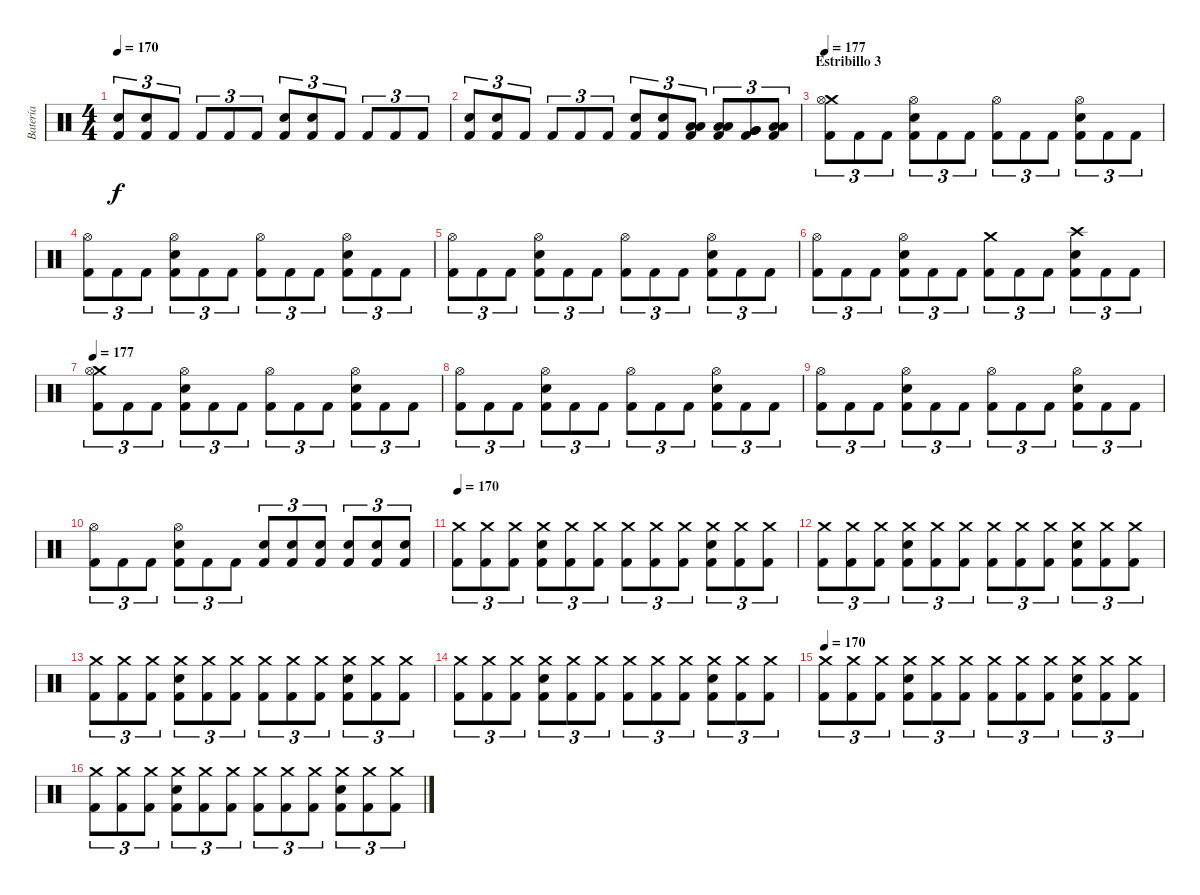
\track ("Batería" "Batería") {instrument percussion}
\staff {score}
\articulation defaults
\ts (4 4)
\tempo 170
\clef neutral
\ks c
("Snare (hit) 2" "Kick (hit) 2").8{tu (3 2) dy f} ("Snare (hit) 2" "Kick (hit) 2").8{tu (3 2)} "Kick (hit) 2".8{tu (3 2)} "Kick (hit) 2".8{tu (3 2)} "Kick (hit) 2".8{tu (3 2)} "Kick (hit) 2".8{tu (3 2)} ("Snare (hit) 2" "Kick (hit) 2").8{tu (3 2)} ("Snare (hit) 2" "Kick (hit) 2").8{tu (3 2)} "Kick (hit) 2".8{tu (3 2)} "Kick (hit) 2".8{tu (3 2)} "Kick (hit) 2".8{tu (3 2)} "Kick (hit) 2".8{tu (3 2)} |
("Snare (hit) 2" "Kick (hit) 2").8{tu (3 2)} ("Snare (hit) 2" "Kick (hit) 2").8{tu (3 2)} "Kick (hit) 2".8{tu (3 2)} "Kick (hit) 2".8{tu (3 2)} "Kick (hit) 2".8{tu (3 2)} "Kick (hit) 2".8{tu (3 2)} ("Snare (hit) 2" "Kick (hit) 2").8{tu (3 2)} ("Snare (hit) 2" "Kick (hit) 2").8{tu (3 2)} ("Low Tom (hit)" "Low Tom (hit)" "Kick (hit) 2").8{tu (3 2)} ("Low Tom (hit)" "Low Tom (hit)" "Kick (hit) 2").8{tu (3 2)} ("Very Low Tom (hit)" "Very Low Tom (hit)" "Kick (hit) 2").8{tu (3 2)} ("Low Floor Tom (hit)" "Low Floor Tom (hit)" "Kick (hit) 2").8{tu (3 2)} |
\section ("" "Estribillo 3")
\tempo 177
("Crash medium (hit)" "Hi-Hat (open)" "Kick (hit) 2").8{tu (3 2)} "Kick (hit) 2".8{tu (3 2)} "Kick (hit) 2".8{tu (3 2)} ("Hi-Hat (open)" "Snare (hit) 2" "Kick (hit) 2").8{tu (3 2)} "Kick (hit) 2".8{tu (3 2)} "Kick (hit) 2".8{tu (3 2)} ("Hi-Hat (open)" "Kick (hit) 2").8{tu (3 2)} "Kick (hit) 2".8{tu (3 2)} "Kick (hit) 2".8{tu (3 2)} ("Hi-Hat (open)" "Snare (hit) 2" "Kick (hit) 2").8{tu (3 2)} "Kick (hit) 2".8{tu (3 2)} "Kick (hit) 2".8{tu (3 2)} |
("Hi-Hat (open)" "Kick (hit) 2").8{tu (3 2)} "Kick (hit) 2".8{tu (3 2)} "Kick (hit) 2".8{tu (3 2)} ("Hi-Hat (open)" "Snare (hit) 2" "Kick (hit) 2").8{tu (3 2)} "Kick (hit) 2".8{tu (3 2)} "Kick (hit) 2".8{tu (3 2)} ("Hi-Hat (open)" "Kick (hit) 2").8{tu (3 2)} "Kick (hit) 2".8{tu (3 2)} "Kick (hit) 2".8{tu (3 2)} ("Hi-Hat (open)" "Snare (hit) 2" "Kick (hit) 2").8{tu (3 2)} "Kick (hit) 2".8{tu (3 2)} "Kick (hit) 2".8{tu (3 2)} |
("Hi-Hat (open)" "Kick (hit) 2").8{tu (3 2)} "Kick (hit) 2".8{tu (3 2)} "Kick (hit) 2".8{tu (3 2)} ("Hi-Hat (open)" "Snare (hit) 2" "Kick (hit) 2").8{tu (3 2)} "Kick (hit) 2".8{tu (3 2)} "Kick (hit) 2".8{tu (3 2)} ("Hi-Hat (open)" "Kick (hit) 2").8{tu (3 2)} "Kick (hit) 2".8{tu (3 2)} "Kick (hit) 2".8{tu (3 2)} ("Hi-Hat (open)" "Snare (hit) 2" "Kick (hit) 2").8{tu (3 2)} "Kick (hit) 2".8{tu (3 2)} "Kick (hit) 2".8{tu (3 2)} |
("Hi-Hat (open)" "Kick (hit) 2").8{tu (3 2)} "Kick (hit) 2".8{tu (3 2)} "Kick (hit) 2".8{tu (3 2)} ("Hi-Hat (open)" "Snare (hit) 2" "Kick (hit) 2").8{tu (3 2)} "Kick (hit) 2".8{tu (3 2)} "Kick (hit) 2".8{tu (3 2)} ("Crash medium (hit)" "Kick (hit) 2").8{tu (3 2)} "Kick (hit) 2".8{tu (3 2)} "Kick (hit) 2".8{tu (3 2)} ("Crash high (hit)" "Snare (hit) 2" "Kick (hit) 2").8{tu (3 2)} "Kick (hit) 2".8{tu (3 2)} "Kick (hit) 2".8{tu (3 2)} |
\tempo 177
("Crash medium (hit)" "Hi-Hat (open)" "Kick (hit) 2").8{tu (3 2)} "Kick (hit) 2".8{tu (3 2)} "Kick (hit) 2".8{tu (3 2)} ("Hi-Hat (open)" "Snare (hit) 2" "Kick (hit) 2").8{tu (3 2)} "Kick (hit) 2".8{tu (3 2)} "Kick (hit) 2".8{tu (3 2)} ("Hi-Hat (open)" "Kick (hit) 2").8{tu (3 2)} "Kick (hit) 2".8{tu (3 2)} "Kick (hit) 2".8{tu (3 2)} ("Hi-Hat (open)" "Snare (hit) 2" "Kick (hit) 2").8{tu (3 2)} "Kick (hit) 2".8{tu (3 2)} "Kick (hit) 2".8{tu (3 2)} |
("Hi-Hat (open)" "Kick (hit) 2").8{tu (3 2)} "Kick (hit) 2".8{tu (3 2)} "Kick (hit) 2".8{tu (3 2)} ("Hi-Hat (open)" "Snare (hit) 2" "Kick (hit) 2").8{tu (3 2)} "Kick (hit) 2".8{tu (3 2)} "Kick (hit) 2".8{tu (3 2)} ("Hi-Hat (open)" "Kick (hit) 2").8{tu (3 2)} "Kick (hit) 2".8{tu (3 2)} "Kick (hit) 2".8{tu (3 2)} ("Hi-Hat (open)" "Snare (hit) 2" "Kick (hit) 2").8{tu (3 2)} "Kick (hit) 2".8{tu (3 2)} "Kick (hit) 2".8{tu (3 2)} |
("Hi-Hat (open)" "Kick (hit) 2").8{tu (3 2)} "Kick (hit) 2".8{tu (3 2)} "Kick (hit) 2".8{tu (3 2)} ("Hi-Hat (open)" "Snare (hit) 2" "Kick (hit) 2").8{tu (3 2)} "Kick (hit) 2".8{tu (3 2)} "Kick (hit) 2".8{tu (3 2)} ("Hi-Hat (open)" "Kick (hit) 2").8{tu (3 2)} "Kick (hit) 2".8{tu (3 2)} "Kick (hit) 2".8{tu (3 2)} ("Hi-Hat (open)" "Snare (hit) 2" "Kick (hit) 2").8{tu (3 2)} "Kick (hit) 2".8{tu (3 2)} "Kick (hit) 2".8{tu (3 2)} |
("Hi-Hat (open)" "Kick (hit) 2").8{tu (3 2)} "Kick (hit) 2".8{tu (3 2)} "Kick (hit) 2".8{tu (3 2)} ("Hi-Hat (open)" "Snare (hit) 2" "Kick (hit) 2").8{tu (3 2)} "Kick (hit) 2".8{tu (3 2)} "Kick (hit) 2".8{tu (3 2)} ("Snare (hit) 2" "Kick (hit) 2").8{tu (3 2)} ("Snare (hit) 2" "Kick (hit) 2").8{tu (3 2)} ("Snare (hit) 2" "Kick (hit) 2").8{tu (3 2)} ("Snare (hit) 2" "Kick (hit) 2").8{tu (3 2)} ("Snare (hit) 2" "Kick (hit) 2").8{tu (3 2)} ("Snare (hit) 2" "Kick (hit) 2").8{tu (3 2)} |
\tempo 170
("Crash medium (hit)" "Kick (hit) 2").8{tu (3 2)} ("Crash medium (hit)" "Kick (hit) 2").8{tu (3 2)} ("Crash medium (hit)" "Kick (hit) 2").8{tu (3 2)} ("Crash medium (hit)" "Snare (hit) 2" "Kick (hit) 2").8{tu (3 2)} ("Crash medium (hit)" "Kick (hit) 2").8{tu (3 2)} ("Crash medium (hit)" "Kick (hit) 2").8{tu (3 2)} ("Crash medium (hit)" "Kick (hit) 2").8{tu (3 2)} ("Crash medium (hit)" "Kick (hit) 2").8{tu (3 2)} ("Crash medium (hit)" "Kick (hit) 2").8{tu (3 2)} ("Crash medium (hit)" "Snare (hit) 2" "Kick (hit) 2").8{tu (3 2)} ("Crash medium (hit)" "Kick (hit) 2").8{tu (3 2)} ("Crash medium (hit)" "Kick (hit) 2").8{tu (3 2)} |
("Crash medium (hit)" "Kick (hit) 2").8{tu (3 2)} ("Crash medium (hit)" "Kick (hit) 2").8{tu (3 2)} ("Crash medium (hit)" "Kick (hit) 2").8{tu (3 2)} ("Crash medium (hit)" "Snare (hit) 2" "Kick (hit) 2").8{tu (3 2)} ("Crash medium (hit)" "Kick (hit) 2").8{tu (3 2)} ("Crash medium (hit)" "Kick (hit) 2").8{tu (3 2)} ("Crash medium (hit)" "Kick (hit) 2").8{tu (3 2)} ("Crash medium (hit)" "Kick (hit) 2").8{tu (3 2)} ("Crash medium (hit)" "Kick (hit) 2").8{tu (3 2)} ("Crash medium (hit)" "Snare (hit) 2" "Kick (hit) 2").8{tu (3 2)} ("Crash medium (hit)" "Kick (hit) 2").8{tu (3 2)} ("Crash medium (hit)" "Kick (hit) 2").8{tu (3 2)} |
("Crash medium (hit)" "Kick (hit) 2").8{tu (3 2)} ("Crash medium (hit)" "Kick (hit) 2").8{tu (3 2)} ("Crash medium (hit)" "Kick (hit) 2").8{tu (3 2)} ("Crash medium (hit)" "Snare (hit) 2" "Kick (hit) 2").8{tu (3 2)} ("Crash medium (hit)" "Kick (hit) 2").8{tu (3 2)} ("Crash medium (hit)" "Kick (hit) 2").8{tu (3 2)} ("Crash medium (hit)" "Kick (hit) 2").8{tu (3 2)} ("Crash medium (hit)" "Kick (hit) 2").8{tu (3 2)} ("Crash medium (hit)" "Kick (hit) 2").8{tu (3 2)} ("Crash medium (hit)" "Snare (hit) 2" "Kick (hit) 2").8{tu (3 2)} ("Crash medium (hit)" "Kick (hit) 2").8{tu (3 2)} ("Crash medium (hit)" "Kick (hit) 2").8{tu (3 2)} |
("Crash medium (hit)" "Kick (hit) 2").8{tu (3 2)} ("Crash medium (hit)" "Kick (hit) 2").8{tu (3 2)} ("Crash medium (hit)" "Kick (hit) 2").8{tu (3 2)} ("Crash medium (hit)" "Snare (hit) 2" "Kick (hit) 2").8{tu (3 2)} ("Crash medium (hit)" "Kick (hit) 2").8{tu (3 2)} ("Crash medium (hit)" "Kick (hit) 2").8{tu (3 2)} ("Crash medium (hit)" "Kick (hit) 2").8{tu (3 2)} ("Crash medium (hit)" "Kick (hit) 2").8{tu (3 2)} ("Crash medium (hit)" "Kick (hit) 2").8{tu (3 2)} ("Crash medium (hit)" "Snare (hit) 2" "Kick (hit) 2").8{tu (3 2)} ("Crash medium (hit)" "Kick (hit) 2").8{tu (3 2)} ("Crash medium (hit)" "Kick (hit) 2").8{tu (3 2)} |
\tempo 170
("Crash medium (hit)" "Kick (hit) 2").8{tu (3 2)} ("Crash medium (hit)" "Kick (hit) 2").8{tu (3 2)} ("Crash medium (hit)" "Kick (hit) 2").8{tu (3 2)} ("Crash medium (hit)" "Snare (hit) 2" "Kick (hit) 2").8{tu (3 2)} ("Crash medium (hit)" "Kick (hit) 2").8{tu (3 2)} ("Crash medium (hit)" "Kick (hit) 2").8{tu (3 2)} ("Crash medium (hit)" "Kick (hit) 2").8{tu (3 2)} ("Crash medium (hit)" "Kick (hit) 2").8{tu (3 2)} ("Crash medium (hit)" "Kick (hit) 2").8{tu (3 2)} ("Crash medium (hit)" "Snare (hit) 2" "Kick (hit) 2").8{tu (3 2)} ("Crash medium (hit)" "Kick (hit) 2").8{tu (3 2)} ("Crash medium (hit)" "Kick (hit) 2").8{tu (3 2)} |
("Crash medium (hit)" "Kick (hit) 2").8{tu (3 2)} ("Crash medium (hit)" "Kick (hit) 2").8{tu (3 2)} ("Crash medium (hit)" "Kick (hit) 2").8{tu (3 2)} ("Crash medium (hit)" "Snare (hit) 2" "Kick (hit) 2").8{tu (3 2)} ("Crash medium (hit)" "Kick (hit) 2").8{tu (3 2)} ("Crash medium (hit)" "Kick (hit) 2").8{tu (3 2)} ("Crash medium (hit)" "Kick (hit) 2").8{tu (3 2)} ("Crash medium (hit)" "Kick (hit) 2").8{tu (3 2)} ("Crash medium (hit)" "Kick (hit) 2").8{tu (3 2)} ("Crash medium (hit)" "Snare (hit) 2" "Kick (hit) 2").8{tu (3 2)} ("Crash medium (hit)" "Kick (hit) 2").8{tu (3 2)} ("Crash medium (hit)" "Kick (hit) 2").8{tu (3 2)}
